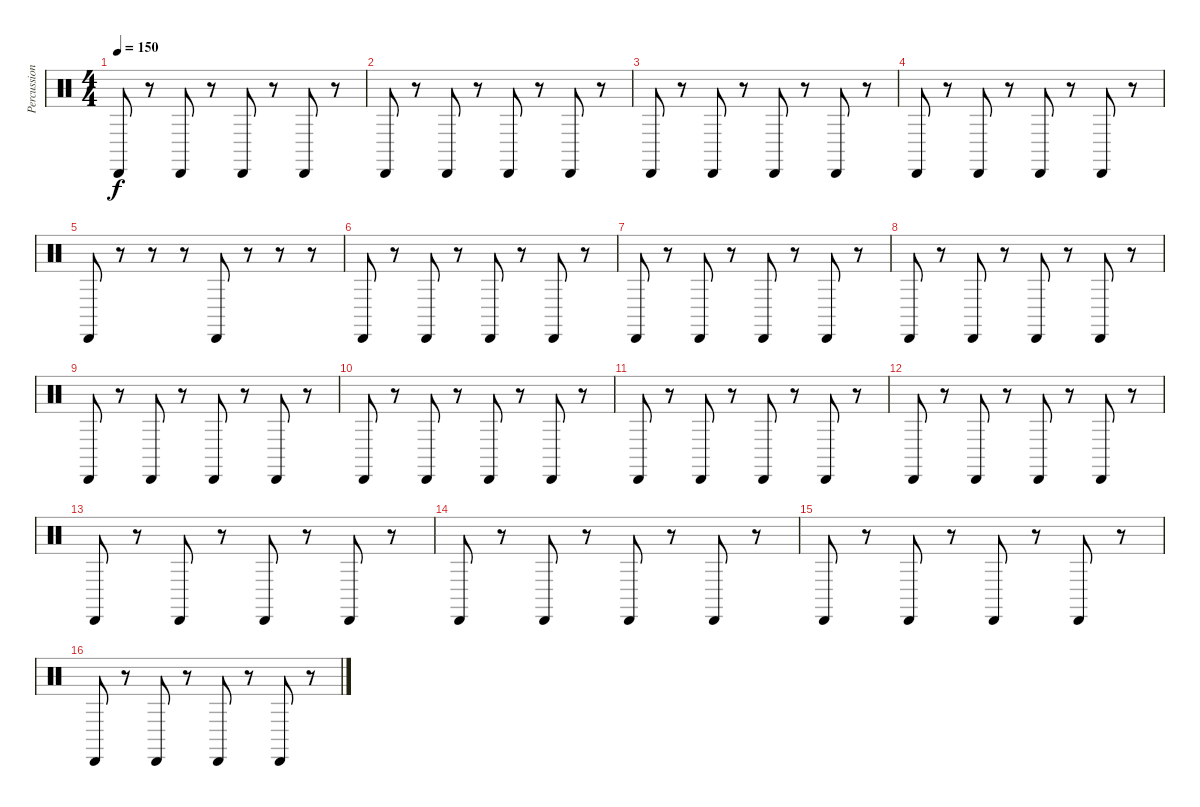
\track ("Percussion1" "Percussion") {instrument percussion}
\staff {score}
\articulation defaults
\ts (4 4)
\tempo 150
\clef neutral
\ks aminor "Cabasa (hit)".8{dy f}
r.8 "Cabasa (hit)".8 r.8 "Cabasa (hit)".8 r.8 "Cabasa (hit)".8 r.8 |
"Cabasa (hit)".8 r.8 "Cabasa (hit)".8 r.8 "Cabasa (hit)".8 r.8 "Cabasa (hit)".8 r.8 |
"Cabasa (hit)".8 r.8 "Cabasa (hit)".8 r.8 "Cabasa (hit)".8 r.8 "Cabasa (hit)".8 r.8 |
"Cabasa (hit)".8 r.8 "Cabasa (hit)".8 r.8 "Cabasa (hit)".8 r.8 "Cabasa (hit)".8 r.8 |
"Cabasa (hit)".8 r.8 r.8 r.8 "Cabasa (hit)".8 r.8 r.8 r.8 |
"Cabasa (hit)".8 r.8 "Cabasa (hit)".8 r.8 "Cabasa (hit)".8 r.8 "Cabasa (hit)".8 r.8 |
"Cabasa (hit)".8 r.8 "Cabasa (hit)".8 r.8 "Cabasa (hit)".8 r.8 "Cabasa (hit)".8 r.8 |
"Cabasa (hit)".8 r.8 "Cabasa (hit)".8 r.8 "Cabasa (hit)".8 r.8 "Cabasa (hit)".8 r.8 |
"Cabasa (hit)".8 r.8 "Cabasa (hit)".8 r.8 "Cabasa (hit)".8 r.8 "Cabasa (hit)".8 r.8 |
"Cabasa (hit)".8 r.8 "Cabasa (hit)".8 r.8 "Cabasa (hit)".8 r.8 "Cabasa (hit)".8 r.8 |
"Cabasa (hit)".8 r.8 "Cabasa (hit)".8 r.8 "Cabasa (hit)".8 r.8 "Cabasa (hit)".8 r.8 |
"Cabasa (hit)".8 r.8 "Cabasa (hit)".8 r.8 "Cabasa (hit)".8 r.8 "Cabasa (hit)".8 r.8 |
"Cabasa (hit)".8 r.8 "Cabasa (hit)".8 r.8 "Cabasa (hit)".8 r.8 "Cabasa (hit)".8 r.8 |
"Cabasa (hit)".8 r.8 "Cabasa (hit)".8 r.8 "Cabasa (hit)".8 r.8 "Cabasa (hit)".8 r.8 |
"Cabasa (hit)".8 r.8 "Cabasa (hit)".8 r.8 "Cabasa (hit)".8 r.8 "Cabasa (hit)".8 r.8 |
"Cabasa (hit)".8 r.8 "Cabasa (hit)".8 r.8 "Cabasa (hit)".8 r.8 "Cabasa (hit)".8 r.8
